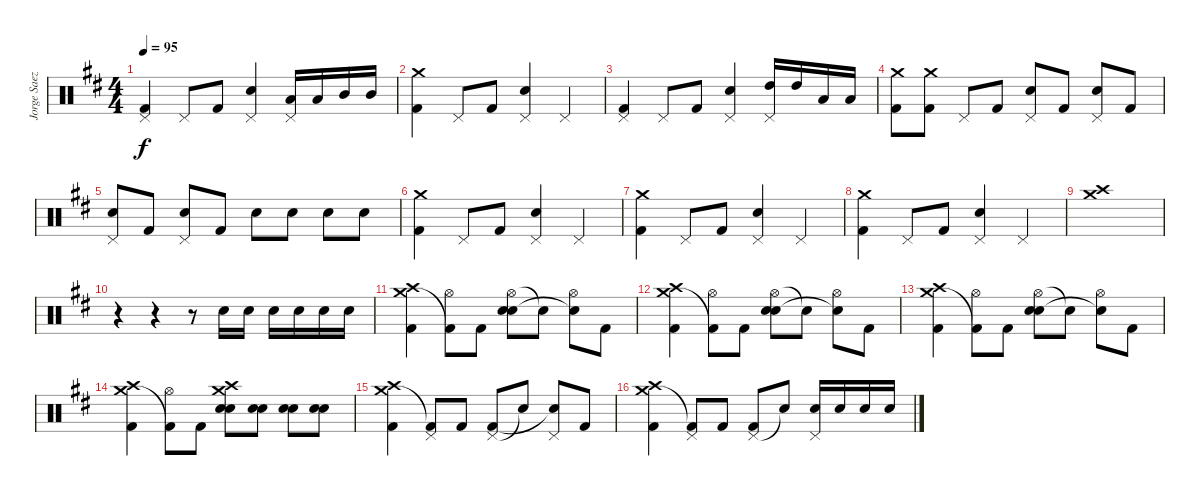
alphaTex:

\track ("Jorge Saez - Drums" "Jorge Saez") {instrument percussion}
\staff {score}
\articulation defaults
\ts (4 4)
\tempo 95
\clef neutral
\ks bminor
("Pedal Hi-Hat (hit)" "Kick (hit) 2").4{dy f} "Pedal Hi-Hat (hit)".8 "Kick (hit) 2".8 ("Pedal Hi-Hat (hit)" "Snare (hit) 2").4 ("Pedal Hi-Hat (hit)" "Low Tom (hit)").16 "Low Tom (hit)".16 "Mid Tom (hit)".16 "Mid Tom (hit)".16 |
("Crash medium (hit)" "Kick (hit) 2").4 "Pedal Hi-Hat (hit)".8 "Kick (hit) 2".8 ("Pedal Hi-Hat (hit)" "Snare (hit) 2").4 "Pedal Hi-Hat (hit)".4 |
("Pedal Hi-Hat (hit)" "Kick (hit) 2").4 "Pedal Hi-Hat (hit)".8 "Kick (hit) 2".8 ("Pedal Hi-Hat (hit)" "Snare (hit) 2").4 ("Pedal Hi-Hat (hit)" "High Tom (hit)").16 "High Tom (hit)".16 "Low Tom (hit)".16 "Low Tom (hit)".16 |
("Crash medium (hit)" "Kick (hit) 2").8 ("Crash medium (hit)" "Kick (hit) 2").8 "Pedal Hi-Hat (hit)".8 "Kick (hit) 2".8 ("Pedal Hi-Hat (hit)" "Snare (hit) 2").8 "Kick (hit) 2".8 ("Pedal Hi-Hat (hit)" "Snare (hit) 2").8 "Kick (hit) 2".8 |
("Pedal Hi-Hat (hit)" "Snare (hit) 2").8 "Kick (hit) 2".8 ("Pedal Hi-Hat (hit)" "Snare (hit) 2").8 "Kick (hit) 2".8 "Snare (hit) 2".8 "Snare (hit) 2".8 "Snare (hit) 2".8 "Snare (hit) 2".8 |
("Crash medium (hit)" "Kick (hit) 2").4 "Pedal Hi-Hat (hit)".8 "Kick (hit) 2".8 ("Pedal Hi-Hat (hit)" "Snare (hit) 2").4 "Pedal Hi-Hat (hit)".4 |
("Crash medium (hit)" "Kick (hit) 2").4 "Pedal Hi-Hat (hit)".8 "Kick (hit) 2".8 ("Pedal Hi-Hat (hit)" "Snare (hit) 2").4 "Pedal Hi-Hat (hit)".4 |
("Crash medium (hit)" "Kick (hit) 2").4 "Pedal Hi-Hat (hit)".8 "Kick (hit) 2".8 ("Pedal Hi-Hat (hit)" "Snare (hit) 2").4 "Pedal Hi-Hat (hit)".4 |
("Crash medium (hit)" "Crash high (hit)").1{bd 480} |
r.4 r.4 r.8 "Snare (hit) 2".16 "Snare (hit) 2".16 "Snare (hit) 2".16 "Snare (hit) 2".16 "Snare (hit) 2".16 "Snare (hit) 2".16 |
("Crash high (hit)" "Crash medium (hit)" "Kick (hit) 2").4 ("Hi-Hat (open)" "Kick (hit) 2"{t}).8 "Kick (hit) 2".8 ("Hi-Hat (open)" "Electric Snare (hit)" "Snare (hit) 2").8 "Snare (hit)"{t}.8 ("Hi-Hat (open)" "Snare (hit)"{t}).8 "Kick (hit) 2".8 |
("Crash high (hit)" "Crash medium (hit)" "Kick (hit) 2").4 ("Hi-Hat (open)" "Kick (hit) 2"{t}).8 "Kick (hit) 2".8 ("Hi-Hat (open)" "Electric Snare (hit)" "Snare (hit) 2").8 "Snare (hit)"{t}.8 ("Hi-Hat (open)" "Snare (hit)"{t}).8 "Kick (hit) 2".8 |
("Crash high (hit)" "Crash medium (hit)" "Kick (hit) 2").4 ("Hi-Hat (open)" "Kick (hit) 2"{t}).8 "Kick (hit) 2".8 ("Hi-Hat (open)" "Electric Snare (hit)" "Snare (hit) 2").8 "Snare (hit)"{t}.8 ("Hi-Hat (open)" "Snare (hit)"{t}).8 "Kick (hit) 2".8 |
("Crash high (hit)" "Crash medium (hit)" "Kick (hit) 2").4 ("Hi-Hat (open)" "Kick (hit) 2"{t}).8 "Kick (hit) 2".8 ("Crash medium (hit)" "Crash high (hit)" "Electric Snare (hit)" "Snare (hit) 2").8 ("Electric Snare (hit)" "Snare (hit) 2").8 ("Electric Snare (hit)" "Snare (hit) 2").8 ("Electric Snare (hit)" "Snare (hit) 2").8 |
("Crash high (hit)" "Crash medium (hit)" "Kick (hit) 2").4 ("Pedal Hi-Hat (hit)" "Kick (hit) 2"{t}).8 "Kick (hit) 2".8 ("Pedal Hi-Hat (hit)" "Kick (hit) 2").8 "Snare (hit)"{t}.8 ("Pedal Hi-Hat (hit)" "Snare (hit)"{t}).8 "Kick (hit) 2".8 |
("Crash high (hit)" "Crash medium (hit)" "Kick (hit) 2").4 ("Pedal Hi-Hat (hit)" "Kick (hit) 2"{t}).8 "Kick (hit) 2".8 ("Pedal Hi-Hat (hit)" "Kick (hit) 2").8 "Snare (hit)"{t}.8 ("Pedal Hi-Hat (hit)" "Snare (hit) 2").16 "Snare (hit) 2".16 "Snare (hit) 2".16 "Snare (hit) 2".16
